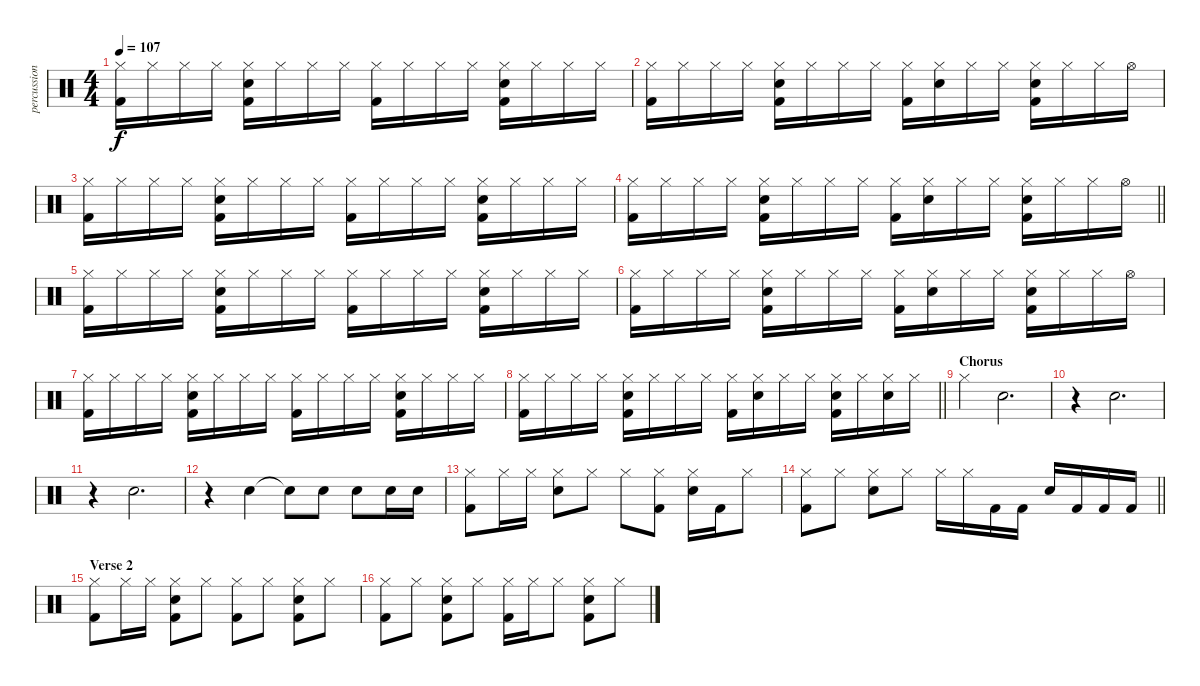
\track ("percussion" "percussion") {instrument percussion}
\staff {score}
\articulation defaults
\ts (4 4)
\tempo 107
\clef neutral
\ks c
("Hi-Hat (closed)" "Kick (hit) 2").16{dy f} "Hi-Hat (closed)".16 "Hi-Hat (closed)".16 "Hi-Hat (closed)".16 ("Snare (hit) 2" "Hi-Hat (closed)" "Kick (hit) 2").16 "Hi-Hat (closed)".16 "Hi-Hat (closed)".16 "Hi-Hat (closed)".16 ("Hi-Hat (closed)" "Kick (hit) 2").16 "Hi-Hat (closed)".16 "Hi-Hat (closed)".16 "Hi-Hat (closed)".16 ("Snare (hit) 2" "Hi-Hat (closed)" "Kick (hit) 2").16 "Hi-Hat (closed)".16 "Hi-Hat (closed)".16 "Hi-Hat (closed)".16 |
("Hi-Hat (closed)" "Kick (hit) 2").16 "Hi-Hat (closed)".16 "Hi-Hat (closed)".16 "Hi-Hat (closed)".16 ("Snare (hit) 2" "Hi-Hat (closed)" "Kick (hit) 2").16 "Hi-Hat (closed)".16 "Hi-Hat (closed)".16 "Hi-Hat (closed)".16 ("Hi-Hat (closed)" "Kick (hit) 2").16 ("Snare (hit) 2" "Hi-Hat (closed)").16 "Hi-Hat (closed)".16 "Hi-Hat (closed)".16 ("Snare (hit) 2" "Hi-Hat (closed)" "Kick (hit) 2").16 "Hi-Hat (closed)".16 "Hi-Hat (closed)".16 "Hi-Hat (open)".16 |
("Hi-Hat (closed)" "Kick (hit) 2").16 "Hi-Hat (closed)".16 "Hi-Hat (closed)".16 "Hi-Hat (closed)".16 ("Snare (hit) 2" "Hi-Hat (closed)" "Kick (hit) 2").16 "Hi-Hat (closed)".16 "Hi-Hat (closed)".16 "Hi-Hat (closed)".16 ("Hi-Hat (closed)" "Kick (hit) 2").16 "Hi-Hat (closed)".16 "Hi-Hat (closed)".16 "Hi-Hat (closed)".16 ("Snare (hit) 2" "Hi-Hat (closed)" "Kick (hit) 2").16 "Hi-Hat (closed)".16 "Hi-Hat (closed)".16 "Hi-Hat (closed)".16 |
\barLineRight lightlight
("Hi-Hat (closed)" "Kick (hit) 2").16 "Hi-Hat (closed)".16 "Hi-Hat (closed)".16 "Hi-Hat (closed)".16 ("Snare (hit) 2" "Hi-Hat (closed)" "Kick (hit) 2").16 "Hi-Hat (closed)".16 "Hi-Hat (closed)".16 "Hi-Hat (closed)".16 ("Hi-Hat (closed)" "Kick (hit) 2").16 ("Snare (hit) 2" "Hi-Hat (closed)").16 "Hi-Hat (closed)".16 "Hi-Hat (closed)".16 ("Snare (hit) 2" "Hi-Hat (closed)" "Kick (hit) 2").16 "Hi-Hat (closed)".16 "Hi-Hat (closed)".16 "Hi-Hat (open)".16 |
("Hi-Hat (closed)" "Kick (hit) 2").16 "Hi-Hat (closed)".16 "Hi-Hat (closed)".16 "Hi-Hat (closed)".16 ("Snare (hit) 2" "Hi-Hat (closed)" "Kick (hit) 2").16 "Hi-Hat (closed)".16 "Hi-Hat (closed)".16 "Hi-Hat (closed)".16 ("Hi-Hat (closed)" "Kick (hit) 2").16 "Hi-Hat (closed)".16 "Hi-Hat (closed)".16 "Hi-Hat (closed)".16 ("Snare (hit) 2" "Hi-Hat (closed)" "Kick (hit) 2").16 "Hi-Hat (closed)".16 "Hi-Hat (closed)".16 "Hi-Hat (closed)".16 |
("Hi-Hat (closed)" "Kick (hit) 2").16 "Hi-Hat (closed)".16 "Hi-Hat (closed)".16 "Hi-Hat (closed)".16 ("Snare (hit) 2" "Hi-Hat (closed)" "Kick (hit) 2").16 "Hi-Hat (closed)".16 "Hi-Hat (closed)".16 "Hi-Hat (closed)".16 ("Hi-Hat (closed)" "Kick (hit) 2").16 ("Snare (hit) 2" "Hi-Hat (closed)").16 "Hi-Hat (closed)".16 "Hi-Hat (closed)".16 ("Snare (hit) 2" "Hi-Hat (closed)" "Kick (hit) 2").16 "Hi-Hat (closed)".16 "Hi-Hat (closed)".16 "Hi-Hat (open)".16 |
("Hi-Hat (closed)" "Kick (hit) 2").16 "Hi-Hat (closed)".16 "Hi-Hat (closed)".16 "Hi-Hat (closed)".16 ("Snare (hit) 2" "Hi-Hat (closed)" "Kick (hit) 2").16 "Hi-Hat (closed)".16 "Hi-Hat (closed)".16 "Hi-Hat (closed)".16 ("Hi-Hat (closed)" "Kick (hit) 2").16 "Hi-Hat (closed)".16 "Hi-Hat (closed)".16 "Hi-Hat (closed)".16 ("Snare (hit) 2" "Hi-Hat (closed)" "Kick (hit) 2").16 "Hi-Hat (closed)".16 "Hi-Hat (closed)".16 "Hi-Hat (closed)".16 |
\barLineRight lightlight
("Hi-Hat (closed)" "Kick (hit) 2").16 "Hi-Hat (closed)".16 "Hi-Hat (closed)".16 "Hi-Hat (closed)".16 ("Snare (hit) 2" "Hi-Hat (closed)" "Kick (hit) 2").16 "Hi-Hat (closed)".16 "Hi-Hat (closed)".16 "Hi-Hat (closed)".16 ("Hi-Hat (closed)" "Kick (hit) 2").16 ("Snare (hit) 2" "Hi-Hat (closed)").16 "Hi-Hat (closed)".16 "Hi-Hat (closed)".16 ("Snare (hit) 2" "Hi-Hat (closed)" "Kick (hit) 2").16 "Hi-Hat (closed)".16 ("Snare (hit) 2" "Hi-Hat (closed)").16 "Hi-Hat (closed)".16 |
\section ("" "Chorus")
"Hi-Hat (closed)".4 "Snare (hit) 2".2{d} |
r.4 "Snare (hit) 2".2{d} |
r.4 "Snare (hit) 2".2{d} |
r.4 "Snare (hit) 2".4 "Snare (hit)"{t}.8 "Snare (hit) 2".8 "Snare (hit) 2".8 "Snare (hit) 2".16 "Snare (hit) 2".16 |
("Hi-Hat (closed)" "Kick (hit) 2").8 "Hi-Hat (closed)".16 "Hi-Hat (closed)".16 ("Snare (hit) 2" "Hi-Hat (closed)").8 "Hi-Hat (closed)".8 "Hi-Hat (closed)".8 ("Hi-Hat (closed)" "Kick (hit) 2").8 ("Snare (hit) 2" "Hi-Hat (closed)").16 "Kick (hit) 2".16 "Hi-Hat (closed)".8 |
\barLineRight lightlight
("Hi-Hat (closed)" "Kick (hit) 2").8 "Hi-Hat (closed)".8 ("Snare (hit) 2" "Hi-Hat (closed)").8 "Hi-Hat (closed)".8 "Hi-Hat (closed)".16 "Hi-Hat (closed)".16 "Kick (hit) 2".16 "Kick (hit) 2".16 "Snare (hit) 2".16 "Kick (hit) 2".16 "Kick (hit) 2".16 "Kick (hit) 2".16 |
\section ("" "Verse 2")
("Hi-Hat (closed)" "Kick (hit) 2").8 "Hi-Hat (closed)".16 "Hi-Hat (closed)".16 ("Snare (hit) 2" "Hi-Hat (closed)" "Kick (hit) 2").8 "Hi-Hat (closed)".8 ("Hi-Hat (closed)" "Kick (hit) 2").8 "Hi-Hat (closed)".8 ("Snare (hit) 2" "Hi-Hat (closed)" "Kick (hit) 2").8 "Hi-Hat (closed)".8 |
("Hi-Hat (closed)" "Kick (hit) 2").8 "Hi-Hat (closed)".8 ("Snare (hit) 2" "Hi-Hat (closed)" "Kick (hit) 2").8 "Hi-Hat (closed)".8 ("Hi-Hat (closed)" "Kick (hit) 2").16 "Hi-Hat (closed)".16 "Hi-Hat (closed)".8 ("Snare (hit) 2" "Hi-Hat (closed)" "Kick (hit) 2").8 "Hi-Hat (closed)".8
